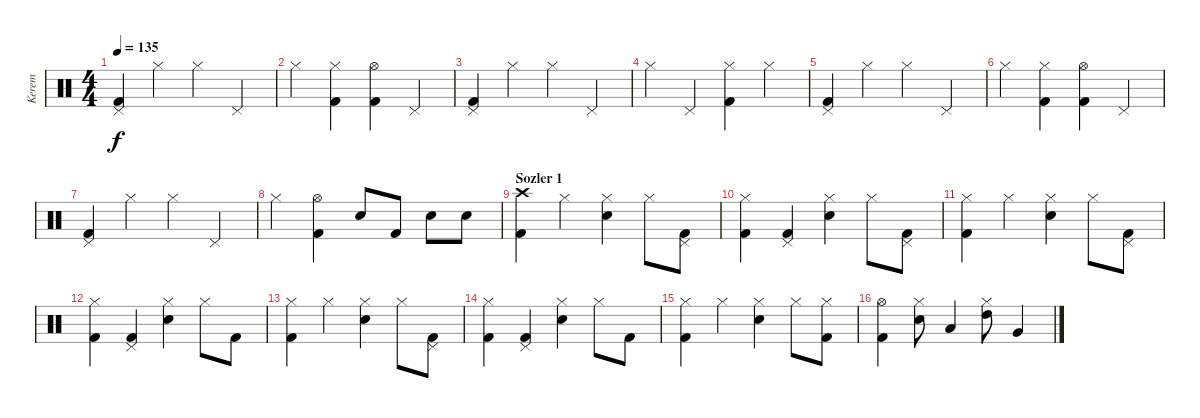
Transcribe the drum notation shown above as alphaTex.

\track ("Kerem" "Kerem") {instrument percussion}
\staff {score}
\articulation defaults
\ts (4 4)
\tempo 135
\clef neutral
\ks c
("Pedal Hi-Hat (hit)" "Kick (hit) 2").4{dy f} "Hi-Hat (closed)".4 "Hi-Hat (closed)".4 "Pedal Hi-Hat (hit)".4 |
"Hi-Hat (closed)".4 ("Hi-Hat (closed)" "Kick (hit) 2").4 ("Hi-Hat (open)" "Kick (hit) 2").4 "Pedal Hi-Hat (hit)".4 |
("Pedal Hi-Hat (hit)" "Kick (hit) 2").4 "Hi-Hat (closed)".4 "Hi-Hat (closed)".4 "Pedal Hi-Hat (hit)".4 |
"Hi-Hat (closed)".4 "Pedal Hi-Hat (hit)".4 ("Hi-Hat (closed)" "Kick (hit) 2").4 "Hi-Hat (closed)".4 |
("Pedal Hi-Hat (hit)" "Kick (hit) 2").4 "Hi-Hat (closed)".4 "Hi-Hat (closed)".4 "Pedal Hi-Hat (hit)".4 |
"Hi-Hat (closed)".4 ("Hi-Hat (closed)" "Kick (hit) 2").4 ("Hi-Hat (open)" "Kick (hit) 2").4 "Pedal Hi-Hat (hit)".4 |
("Pedal Hi-Hat (hit)" "Kick (hit) 2").4 "Hi-Hat (closed)".4 "Hi-Hat (closed)".4 "Pedal Hi-Hat (hit)".4 |
"Hi-Hat (closed)".4 ("Hi-Hat (open)" "Kick (hit) 2").4 "Electric Snare (hit)".8 "Kick (hit) 2".8 "Electric Snare (hit)".8 "Electric Snare (hit)".8 |
\section ("" "Sozler 1")
("Crash high (hit)" "Kick (hit) 2").4 "Hi-Hat (closed)".4 ("Electric Snare (hit)" "Hi-Hat (closed)").4 "Hi-Hat (closed)".8 ("Pedal Hi-Hat (hit)" "Kick (hit) 2").8 |
("Hi-Hat (closed)" "Kick (hit) 2").4 ("Pedal Hi-Hat (hit)" "Kick (hit) 2").4 ("Electric Snare (hit)" "Hi-Hat (closed)").4 "Hi-Hat (closed)".8 ("Pedal Hi-Hat (hit)" "Kick (hit) 2").8 |
("Hi-Hat (closed)" "Kick (hit) 2").4 "Hi-Hat (closed)".4 ("Electric Snare (hit)" "Hi-Hat (closed)").4 "Hi-Hat (closed)".8 ("Pedal Hi-Hat (hit)" "Kick (hit) 2").8 |
("Hi-Hat (closed)" "Kick (hit) 2").4 ("Pedal Hi-Hat (hit)" "Kick (hit) 2").4 ("Electric Snare (hit)" "Hi-Hat (closed)").4 "Hi-Hat (closed)".8 "Kick (hit) 2".8 |
("Hi-Hat (closed)" "Kick (hit) 2").4 "Hi-Hat (closed)".4 ("Electric Snare (hit)" "Hi-Hat (closed)").4 "Hi-Hat (closed)".8 ("Pedal Hi-Hat (hit)" "Kick (hit) 2").8 |
("Hi-Hat (closed)" "Kick (hit) 2").4 ("Pedal Hi-Hat (hit)" "Kick (hit) 2").4 ("Electric Snare (hit)" "Hi-Hat (closed)").4 "Hi-Hat (closed)".8 "Kick (hit) 2".8 |
("Hi-Hat (closed)" "Kick (hit) 2").4 "Hi-Hat (closed)".4 ("Electric Snare (hit)" "Hi-Hat (closed)").4 "Hi-Hat (closed)".8 ("Hi-Hat (closed)" "Kick (hit) 2").8 |
("Kick (hit) 2" "Hi-Hat (open)").4 ("Electric Snare (hit)" "Hi-Hat (closed)").8 "Low Tom (hit)".4 ("High Tom (hit)" "Hi-Hat (closed)").8 "Very Low Tom (hit)".4
